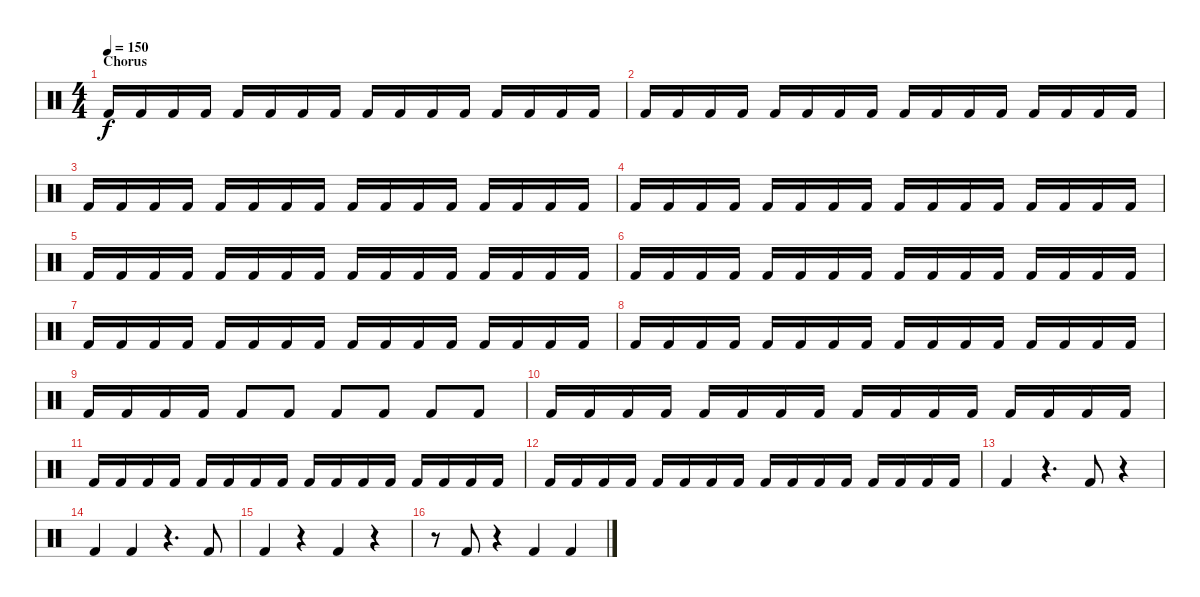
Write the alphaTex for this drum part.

\track "" {instrument percussion}
\staff {score}
\articulation defaults
\ts (4 4)
\section ("" "Chorus")
\tempo 150
\clef neutral
\ks c "Kick (hit) 2".16{dy f} "Kick (hit) 2".16 "Kick (hit) 2".16 "Kick (hit) 2".16 "Kick (hit) 2".16 "Kick (hit) 2".16 "Kick (hit) 2".16 "Kick (hit) 2".16 "Kick (hit) 2".16 "Kick (hit) 2".16 "Kick (hit) 2".16 "Kick (hit) 2".16 "Kick (hit) 2".16 "Kick (hit) 2".16 "Kick (hit) 2".16 "Kick (hit) 2".16
|
"Kick (hit) 2".16 "Kick (hit) 2".16 "Kick (hit) 2".16 "Kick (hit) 2".16 "Kick (hit) 2".16 "Kick (hit) 2".16 "Kick (hit) 2".16 "Kick (hit) 2".16 "Kick (hit) 2".16 "Kick (hit) 2".16 "Kick (hit) 2".16 "Kick (hit) 2".16 "Kick (hit) 2".16 "Kick (hit) 2".16 "Kick (hit) 2".16 "Kick (hit) 2".16 |
"Kick (hit) 2".16 "Kick (hit) 2".16 "Kick (hit) 2".16 "Kick (hit) 2".16 "Kick (hit) 2".16 "Kick (hit) 2".16 "Kick (hit) 2".16 "Kick (hit) 2".16 "Kick (hit) 2".16 "Kick (hit) 2".16 "Kick (hit) 2".16 "Kick (hit) 2".16 "Kick (hit) 2".16 "Kick (hit) 2".16 "Kick (hit) 2".16 "Kick (hit) 2".16 |
"Kick (hit) 2".16 "Kick (hit) 2".16 "Kick (hit) 2".16 "Kick (hit) 2".16 "Kick (hit) 2".16 "Kick (hit) 2".16 "Kick (hit) 2".16 "Kick (hit) 2".16 "Kick (hit) 2".16 "Kick (hit) 2".16 "Kick (hit) 2".16 "Kick (hit) 2".16 "Kick (hit) 2".16 "Kick (hit) 2".16 "Kick (hit) 2".16 "Kick (hit) 2".16 |
"Kick (hit) 2".16 "Kick (hit) 2".16 "Kick (hit) 2".16 "Kick (hit) 2".16 "Kick (hit) 2".16 "Kick (hit) 2".16 "Kick (hit) 2".16 "Kick (hit) 2".16 "Kick (hit) 2".16 "Kick (hit) 2".16 "Kick (hit) 2".16 "Kick (hit) 2".16 "Kick (hit) 2".16 "Kick (hit) 2".16 "Kick (hit) 2".16 "Kick (hit) 2".16 |
"Kick (hit) 2".16 "Kick (hit) 2".16 "Kick (hit) 2".16 "Kick (hit) 2".16 "Kick (hit) 2".16 "Kick (hit) 2".16 "Kick (hit) 2".16 "Kick (hit) 2".16 "Kick (hit) 2".16 "Kick (hit) 2".16 "Kick (hit) 2".16 "Kick (hit) 2".16 "Kick (hit) 2".16 "Kick (hit) 2".16 "Kick (hit) 2".16 "Kick (hit) 2".16 |
"Kick (hit) 2".16 "Kick (hit) 2".16 "Kick (hit) 2".16 "Kick (hit) 2".16 "Kick (hit) 2".16 "Kick (hit) 2".16 "Kick (hit) 2".16 "Kick (hit) 2".16 "Kick (hit) 2".16 "Kick (hit) 2".16 "Kick (hit) 2".16 "Kick (hit) 2".16 "Kick (hit) 2".16 "Kick (hit) 2".16 "Kick (hit) 2".16 "Kick (hit) 2".16 |
"Kick (hit) 2".16 "Kick (hit) 2".16 "Kick (hit) 2".16 "Kick (hit) 2".16 "Kick (hit) 2".16 "Kick (hit) 2".16 "Kick (hit) 2".16 "Kick (hit) 2".16 "Kick (hit) 2".16 "Kick (hit) 2".16 "Kick (hit) 2".16 "Kick (hit) 2".16 "Kick (hit) 2".16 "Kick (hit) 2".16 "Kick (hit) 2".16 "Kick (hit) 2".16 |
"Kick (hit) 2".16 "Kick (hit) 2".16 "Kick (hit) 2".16 "Kick (hit) 2".16 "Kick (hit) 2".8 "Kick (hit) 2".8 "Kick (hit) 2".8 "Kick (hit) 2".8 "Kick (hit) 2".8 "Kick (hit) 2".8 |
"Kick (hit) 2".16 "Kick (hit) 2".16 "Kick (hit) 2".16 "Kick (hit) 2".16 "Kick (hit) 2".16 "Kick (hit) 2".16 "Kick (hit) 2".16 "Kick (hit) 2".16 "Kick (hit) 2".16 "Kick (hit) 2".16 "Kick (hit) 2".16 "Kick (hit) 2".16 "Kick (hit) 2".16 "Kick (hit) 2".16 "Kick (hit) 2".16 "Kick (hit) 2".16 |
"Kick (hit) 2".16 "Kick (hit) 2".16 "Kick (hit) 2".16 "Kick (hit) 2".16 "Kick (hit) 2".16 "Kick (hit) 2".16 "Kick (hit) 2".16 "Kick (hit) 2".16 "Kick (hit) 2".16 "Kick (hit) 2".16 "Kick (hit) 2".16 "Kick (hit) 2".16 "Kick (hit) 2".16 "Kick (hit) 2".16 "Kick (hit) 2".16 "Kick (hit) 2".16 |
"Kick (hit) 2".16 "Kick (hit) 2".16 "Kick (hit) 2".16 "Kick (hit) 2".16 "Kick (hit) 2".16 "Kick (hit) 2".16 "Kick (hit) 2".16 "Kick (hit) 2".16 "Kick (hit) 2".16 "Kick (hit) 2".16 "Kick (hit) 2".16 "Kick (hit) 2".16 "Kick (hit) 2".16 "Kick (hit) 2".16 "Kick (hit) 2".16 "Kick (hit) 2".16 |
"Kick (hit) 2".4 r.4{d} "Kick (hit) 2".8 r.4 |
"Kick (hit) 2".4 "Kick (hit) 2".4 r.4{d} "Kick (hit) 2".8 |
"Kick (hit) 2".4 r.4 "Kick (hit) 2".4 r.4 |
r.8 "Kick (hit) 2".8 r.4 "Kick (hit) 2".4 "Kick (hit) 2".4
